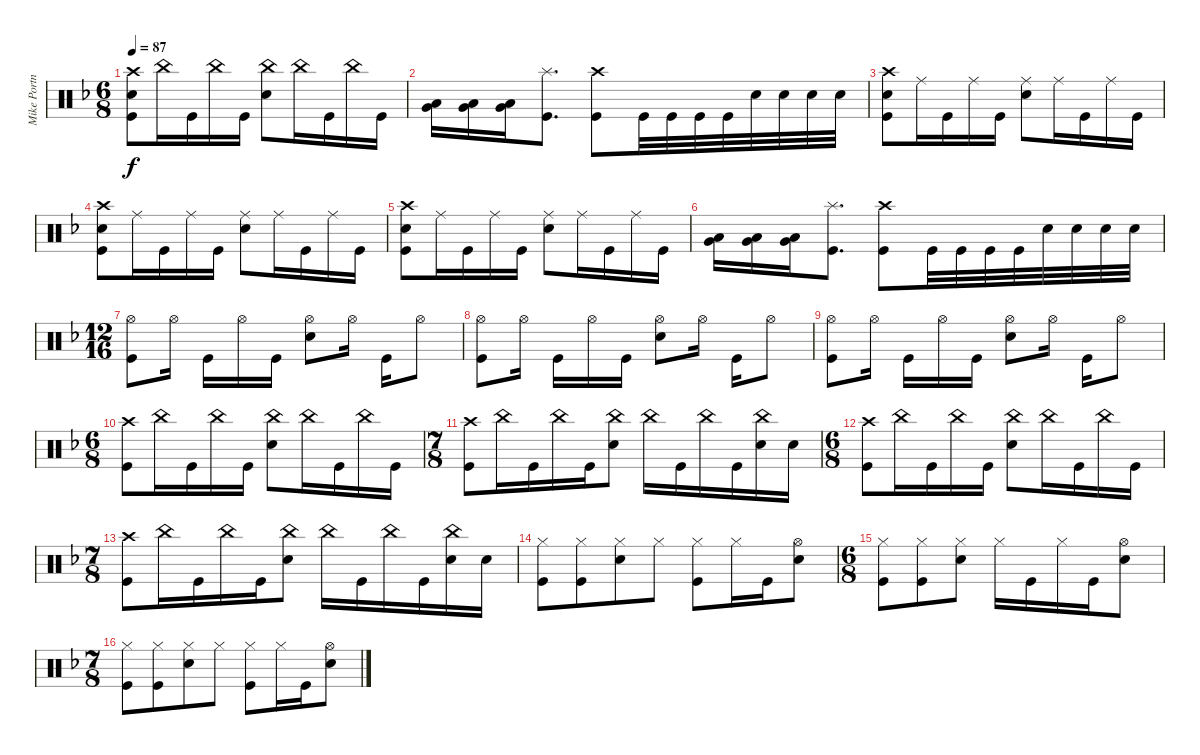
\track ("Mike Portnoy - Drums" "Mike Portn") {instrument percussion}
\staff {score}
\articulation defaults
\ts (6 8)
\tempo 87
\clef neutral
\ks dminor
("Crash high (hit)" "Snare (hit) 2" "Kick (hit)").8{dy f} "China (hit)".16 "Kick (hit)".16 "China (hit)".16 "Kick (hit)".16 ("China (hit)" "Snare (hit) 2").8 "China (hit)".16 "Kick (hit)".16 "China (hit)".16 "Kick (hit)".16 |
("Low Tom (hit)" "Very Low Tom (hit)").16 ("Low Tom (hit)" "Very Low Tom (hit)").16 ("Low Tom (hit)" "Very Low Tom (hit)").16 ("Splash (hit)" "Kick (hit)").8{d} ("Crash high (hit)" "Kick (hit)").8 "Kick (hit)".32 "Kick (hit)".32 "Kick (hit)".32 "Kick (hit)".32 "Snare (hit) 2".32 "Snare (hit) 2".32 "Snare (hit) 2".32 "Snare (hit) 2".32 |
("Crash high (hit)" "Snare (hit) 2" "Kick (hit)").8 "Ride (middle)".16 "Kick (hit)".16 "Ride (middle)".16 "Kick (hit)".16 ("Ride (middle)" "Snare (hit) 2").8 "Ride (middle)".16 "Kick (hit)".16 "Ride (middle)".16 "Kick (hit)".16 |
("Crash high (hit)" "Snare (hit) 2" "Kick (hit)").8 "Ride (middle)".16 "Kick (hit)".16 "Ride (middle)".16 "Kick (hit)".16 ("Ride (middle)" "Snare (hit) 2").8 "Ride (middle)".16 "Kick (hit)".16 "Ride (middle)".16 "Kick (hit)".16 |
("Crash high (hit)" "Snare (hit) 2" "Kick (hit)").8 "Ride (middle)".16 "Kick (hit)".16 "Ride (middle)".16 "Kick (hit)".16 ("Ride (middle)" "Snare (hit) 2").8 "Ride (middle)".16 "Kick (hit)".16 "Ride (middle)".16 "Kick (hit)".16 |
("Low Tom (hit)" "Very Low Tom (hit)").16 ("Low Tom (hit)" "Very Low Tom (hit)").16 ("Low Tom (hit)" "Very Low Tom (hit)").16 ("Splash (hit)" "Kick (hit)").8{d} ("Crash high (hit)" "Kick (hit)").8 "Kick (hit)".32 "Kick (hit)".32 "Kick (hit)".32 "Kick (hit)".32 "Snare (hit) 2".32 "Snare (hit) 2".32 "Snare (hit) 2".32 "Snare (hit) 2".32 |
\ts (12 16)
("Hi-Hat (open)" "Kick (hit)").8 "Hi-Hat (open)".16 "Kick (hit)".16 "Hi-Hat (open)".16 "Kick (hit)".16 ("Hi-Hat (open)" "Snare (hit) 2").8 "Hi-Hat (open)".16 "Kick (hit)".16 "Hi-Hat (open)".8 |
("Hi-Hat (open)" "Kick (hit)").8 "Hi-Hat (open)".16 "Kick (hit)".16 "Hi-Hat (open)".16 "Kick (hit)".16 ("Hi-Hat (open)" "Snare (hit) 2").8 "Hi-Hat (open)".16 "Kick (hit)".16 "Hi-Hat (open)".8 |
("Hi-Hat (open)" "Kick (hit)").8 "Hi-Hat (open)".16 "Kick (hit)".16 "Hi-Hat (open)".16 "Kick (hit)".16 ("Hi-Hat (open)" "Snare (hit) 2").8 "Hi-Hat (open)".16 "Kick (hit)".16 "Hi-Hat (open)".8 |
\ts (6 8)
("Crash high (hit)" "Kick (hit)").8 "China (hit)".16 "Kick (hit)".16 "China (hit)".16 "Kick (hit)".16 ("China (hit)" "Snare (hit) 2").8 "China (hit)".16 "Kick (hit)".16 "China (hit)".16 "Kick (hit)".16 |
\ts (7 8)
("Crash high (hit)" "Kick (hit)").8 "China (hit)".16 "Kick (hit)".16 "China (hit)".16 "Kick (hit)".16 ("China (hit)" "Snare (hit) 2").8 "China (hit)".16 "Kick (hit)".16 "China (hit)".16 "Kick (hit)".16 ("China (hit)" "Snare (hit) 2").16 "Snare (hit) 2".16 |
\ts (6 8)
("Crash high (hit)" "Kick (hit)").8 "China (hit)".16 "Kick (hit)".16 "China (hit)".16 "Kick (hit)".16 ("China (hit)" "Snare (hit) 2").8 "China (hit)".16 "Kick (hit)".16 "China (hit)".16 "Kick (hit)".16 |
\ts (7 8)
("Crash high (hit)" "Kick (hit)").8 "China (hit)".16 "Kick (hit)".16 "China (hit)".16 "Kick (hit)".16 ("China (hit)" "Snare (hit) 2").8 "China (hit)".16 "Kick (hit)".16 "China (hit)".16 "Kick (hit)".16 ("China (hit)" "Snare (hit) 2").16 "Snare (hit) 2".16 |
("Hi-Hat (closed)" "Kick (hit)").8 ("Hi-Hat (closed)" "Kick (hit)").8 ("Hi-Hat (closed)" "Snare (hit) 2").8 "Hi-Hat (closed)".8 ("Hi-Hat (closed)" "Kick (hit)").8 "Hi-Hat (closed)".16 "Kick (hit)".16 ("Hi-Hat (open)" "Snare (hit) 2").8 |
\ts (6 8)
("Hi-Hat (closed)" "Kick (hit)").8 ("Hi-Hat (closed)" "Kick (hit)").8 ("Hi-Hat (closed)" "Snare (hit) 2").8 "Hi-Hat (closed)".16 "Kick (hit)".16 "Hi-Hat (closed)".16 "Kick (hit)".16 ("Hi-Hat (open)" "Snare (hit) 2").8 |
\ts (7 8)
("Hi-Hat (closed)" "Kick (hit)").8 ("Hi-Hat (closed)" "Kick (hit)").8 ("Hi-Hat (closed)" "Snare (hit) 2").8 "Hi-Hat (closed)".8 ("Hi-Hat (closed)" "Kick (hit)").8 "Hi-Hat (closed)".16 "Kick (hit)".16 ("Hi-Hat (open)" "Snare (hit) 2").8
